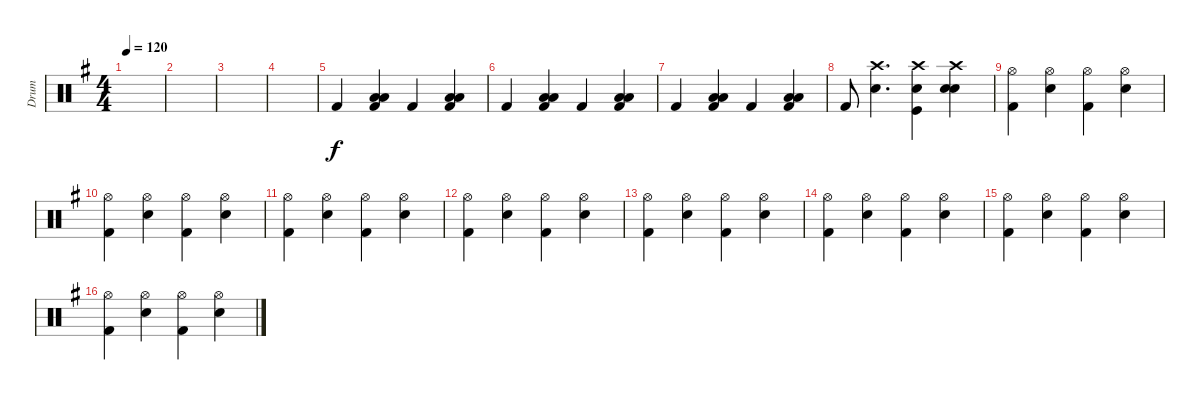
\track ("Drum" "Drum") {instrument percussion}
\staff {score}
\articulation defaults
\ts (4 4)
\tempo 120
\clef neutral
\ks g
|
|
|
|
"Kick (hit) 2".4 ("Kick (hit) 2" "Low Floor Tom (hit)" "Low Tom (hit)").4 "Kick (hit) 2".4 ("Kick (hit) 2" "Low Floor Tom (hit)" "Low Tom (hit)").4 |
"Kick (hit) 2".4 ("Kick (hit) 2" "Low Floor Tom (hit)" "Low Tom (hit)").4 "Kick (hit) 2".4 ("Kick (hit) 2" "Low Floor Tom (hit)" "Low Tom (hit)").4 |
"Kick (hit) 2".4 ("Kick (hit) 2" "Low Floor Tom (hit)" "Low Tom (hit)").4 "Kick (hit) 2".4 ("Kick (hit) 2" "Low Floor Tom (hit)" "Low Tom (hit)").4 |
"Kick (hit) 2".8 ("Crash high (hit)" "Electric Snare (hit)").4{d} ("Kick (hit)" "Crash high (hit)" "Electric Snare (hit)").4 ("Snare (hit) 2" "Crash high (hit)" "Electric Snare (hit)").4 |
("Hi-Hat (open)" "Kick (hit) 2").4 ("Hi-Hat (open)" "Electric Snare (hit)").4 ("Hi-Hat (open)" "Kick (hit) 2").4 ("Hi-Hat (open)" "Electric Snare (hit)").4 |
("Hi-Hat (open)" "Kick (hit) 2").4 ("Hi-Hat (open)" "Electric Snare (hit)").4 ("Hi-Hat (open)" "Kick (hit) 2").4 ("Hi-Hat (open)" "Electric Snare (hit)").4 |
("Hi-Hat (open)" "Kick (hit) 2").4 ("Hi-Hat (open)" "Electric Snare (hit)").4 ("Hi-Hat (open)" "Kick (hit) 2").4 ("Hi-Hat (open)" "Electric Snare (hit)").4 |
("Hi-Hat (open)" "Kick (hit) 2").4 ("Hi-Hat (open)" "Electric Snare (hit)").4 ("Hi-Hat (open)" "Kick (hit) 2").4 ("Hi-Hat (open)" "Electric Snare (hit)").4 |
("Hi-Hat (open)" "Kick (hit) 2").4 ("Hi-Hat (open)" "Electric Snare (hit)").4 ("Hi-Hat (open)" "Kick (hit) 2").4 ("Hi-Hat (open)" "Electric Snare (hit)").4 |
("Hi-Hat (open)" "Kick (hit) 2").4 ("Hi-Hat (open)" "Electric Snare (hit)").4 ("Hi-Hat (open)" "Kick (hit) 2").4 ("Hi-Hat (open)" "Electric Snare (hit)").4 |
("Hi-Hat (open)" "Kick (hit) 2").4 ("Hi-Hat (open)" "Electric Snare (hit)").4 ("Hi-Hat (open)" "Kick (hit) 2").4 ("Hi-Hat (open)" "Electric Snare (hit)").4 |
("Hi-Hat (open)" "Kick (hit) 2").4 ("Hi-Hat (open)" "Electric Snare (hit)").4 ("Hi-Hat (open)" "Kick (hit) 2").4 ("Hi-Hat (open)" "Electric Snare (hit)").4
